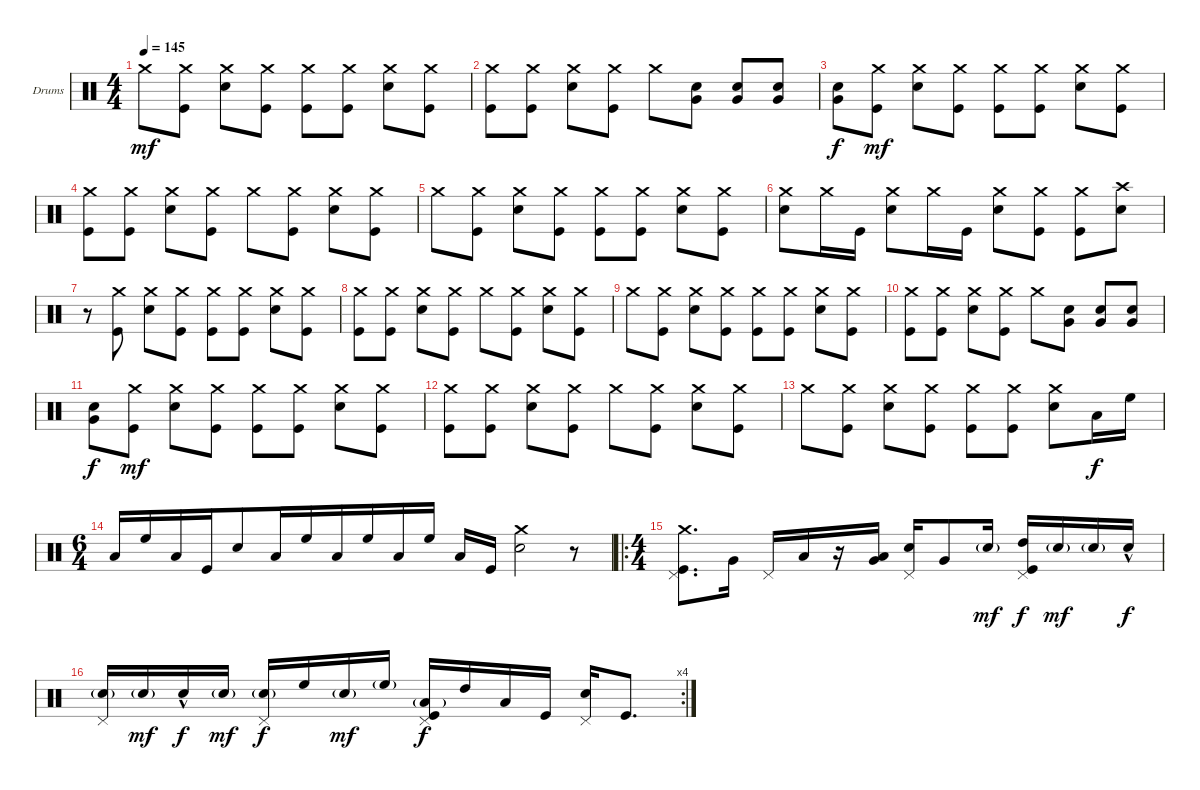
\bracketExtendMode groupsimilarinstruments
\firstSystemTrackNameOrientation horizontal
\otherSystemsTrackNameOrientation horizontal
\track ("Drumkit" "Drums") {instrument percussion}
\staff {score}
\articulation defaults
\ts (4 4)
\tempo 145
\clef neutral
\ks c "Crash medium (hit)".8{dy mf}
("Crash medium (hit)" "Kick (hit)").8 ("Crash medium (hit)" "Snare (hit) 2").8 ("Crash medium (hit)" "Kick (hit)").8 ("Crash medium (hit)" "Kick (hit)").8 ("Crash medium (hit)" "Kick (hit)").8 ("Crash medium (hit)" "Snare (hit) 2").8 ("Crash medium (hit)" "Kick (hit)").8 |
("Crash medium (hit)" "Kick (hit)").8 ("Crash medium (hit)" "Kick (hit)").8 ("Crash medium (hit)" "Snare (hit) 2").8 ("Crash medium (hit)" "Kick (hit)").8 "Crash medium (hit)".8 ("Snare (hit) 2" "Very Low Tom (hit)").8 ("Snare (hit) 2" "Very Low Tom (hit)").8 ("Snare (hit) 2" "Very Low Tom (hit)").8 |
("Very Low Tom (hit)" "Snare (hit) 2").8{dy f} ("Crash medium (hit)" "Kick (hit)").8{dy mf} ("Crash medium (hit)" "Snare (hit) 2").8 ("Crash medium (hit)" "Kick (hit)").8 ("Crash medium (hit)" "Kick (hit)").8 ("Crash medium (hit)" "Kick (hit)").8 ("Crash medium (hit)" "Snare (hit) 2").8 ("Crash medium (hit)" "Kick (hit)").8 |
("Crash medium (hit)" "Kick (hit)").8 ("Crash medium (hit)" "Kick (hit)").8 ("Crash medium (hit)" "Snare (hit) 2").8 ("Crash medium (hit)" "Kick (hit)").8 "Crash medium (hit)".8 ("Crash medium (hit)" "Kick (hit)").8 ("Crash medium (hit)" "Snare (hit) 2").8 ("Crash medium (hit)" "Kick (hit)").8 |
"Crash medium (hit)".8 ("Crash medium (hit)" "Kick (hit)").8 ("Crash medium (hit)" "Snare (hit) 2").8 ("Crash medium (hit)" "Kick (hit)").8 ("Crash medium (hit)" "Kick (hit)").8 ("Crash medium (hit)" "Kick (hit)").8 ("Crash medium (hit)" "Snare (hit) 2").8 ("Crash medium (hit)" "Kick (hit)").8 |
("Crash medium (hit)" "Snare (hit) 2").8 "Crash medium (hit)".16 "Kick (hit)".16 ("Crash medium (hit)" "Snare (hit) 2").8 "Crash medium (hit)".16 "Kick (hit)".16 ("Crash medium (hit)" "Snare (hit) 2").8 ("Crash medium (hit)" "Kick (hit)").8 ("Crash medium (hit)" "Kick (hit)").8 ("Crash high (hit)" "Snare (hit) 2").8 |
r.8 ("Crash medium (hit)" "Kick (hit)").8 ("Crash medium (hit)" "Snare (hit) 2").8 ("Crash medium (hit)" "Kick (hit)").8 ("Crash medium (hit)" "Kick (hit)").8 ("Crash medium (hit)" "Kick (hit)").8 ("Crash medium (hit)" "Snare (hit) 2").8 ("Crash medium (hit)" "Kick (hit)").8 |
("Crash medium (hit)" "Kick (hit)").8 ("Crash medium (hit)" "Kick (hit)").8 ("Crash medium (hit)" "Snare (hit) 2").8 ("Crash medium (hit)" "Kick (hit)").8 "Crash medium (hit)".8 ("Crash medium (hit)" "Kick (hit)").8 ("Crash medium (hit)" "Snare (hit) 2").8 ("Crash medium (hit)" "Kick (hit)").8 |
"Crash medium (hit)".8 ("Crash medium (hit)" "Kick (hit)").8 ("Crash medium (hit)" "Snare (hit) 2").8 ("Crash medium (hit)" "Kick (hit)").8 ("Crash medium (hit)" "Kick (hit)").8 ("Crash medium (hit)" "Kick (hit)").8 ("Crash medium (hit)" "Snare (hit) 2").8 ("Crash medium (hit)" "Kick (hit)").8 |
("Crash medium (hit)" "Kick (hit)").8 ("Crash medium (hit)" "Kick (hit)").8 ("Crash medium (hit)" "Snare (hit) 2").8 ("Crash medium (hit)" "Kick (hit)").8 "Crash medium (hit)".8 ("Snare (hit) 2" "Very Low Tom (hit)").8 ("Snare (hit) 2" "Very Low Tom (hit)").8 ("Snare (hit) 2" "Very Low Tom (hit)").8 |
("Very Low Tom (hit)" "Snare (hit) 2").8{dy f} ("Crash medium (hit)" "Kick (hit)").8{dy mf} ("Crash medium (hit)" "Snare (hit) 2").8 ("Crash medium (hit)" "Kick (hit)").8 ("Crash medium (hit)" "Kick (hit)").8 ("Crash medium (hit)" "Kick (hit)").8 ("Crash medium (hit)" "Snare (hit) 2").8 ("Crash medium (hit)" "Kick (hit)").8 |
("Crash medium (hit)" "Kick (hit)").8 ("Crash medium (hit)" "Kick (hit)").8 ("Crash medium (hit)" "Snare (hit) 2").8 ("Crash medium (hit)" "Kick (hit)").8 "Crash medium (hit)".8 ("Crash medium (hit)" "Kick (hit)").8 ("Crash medium (hit)" "Snare (hit) 2").8 ("Crash medium (hit)" "Kick (hit)").8 |
"Crash medium (hit)".8 ("Crash medium (hit)" "Kick (hit)").8 ("Crash medium (hit)" "Snare (hit) 2").8 ("Crash medium (hit)" "Kick (hit)").8 ("Crash medium (hit)" "Kick (hit)").8 ("Crash medium (hit)" "Kick (hit)").8 ("Crash medium (hit)" "Snare (hit) 2").8 "Low Tom (hit)".16{dy f} "High Floor Tom (hit)".16 |
\ts (6 4)
\beaming (8 6 6)
"Low Tom (hit)".16 "High Floor Tom (hit)".16 "Low Tom (hit)".16 "Kick (hit)".16 "Snare (hit) 2".8 "Low Tom (hit)".16 "High Floor Tom (hit)".16 "Low Tom (hit)".16 "High Floor Tom (hit)".16 "Low Tom (hit)".16 "High Floor Tom (hit)".16 "Low Tom (hit)".16 "Kick (hit)".16 ("Crash medium (hit)" "Snare (hit) 2").2 r.8 |
\ro
\ts (4 4)
\beaming (8 2 2 2 2)
("Crash medium (hit)" "Kick (hit)" "Pedal Hi-Hat (hit)").8{d} "Very Low Tom (hit)".16 "Pedal Hi-Hat (hit)".16 "Low Tom (hit)".16 r.16 ("Low Tom (hit)" "Very Low Tom (hit)").16 ("Snare (hit) 2" "Pedal Hi-Hat (hit)").16 "Very Low Tom (hit)".8 "Snare (hit) 2"{g}.16{dy mf} ("High Tom (hit)" "Pedal Hi-Hat (hit)" "Kick (hit)").16{dy f} "Snare (hit) 2"{g}.16{dy mf} "Snare (hit) 2"{g}.16 "Snare (hit) 2"{hac}.16{dy f} |
\rc 4
("Snare (hit) 2"{g} "Pedal Hi-Hat (hit)").16 "Snare (hit) 2"{g}.16{dy mf} "Snare (hit) 2"{hac}.16{dy f} "Snare (hit) 2"{g}.16{dy mf} ("Snare (hit) 2"{g} "Pedal Hi-Hat (hit)").16{dy f} "High Floor Tom (hit)".16 "Snare (hit) 2"{g}.16{dy mf} "High Floor Tom (hit)"{g}.16 ("Low Tom (hit)"{g} "Pedal Hi-Hat (hit)" "Kick (hit)").16{dy f} "High Tom (hit)".16 "Low Tom (hit)".16 "Kick (hit)".16 ("Snare (hit) 2" "Pedal Hi-Hat (hit)").16 "Kick (hit)".8{d}
